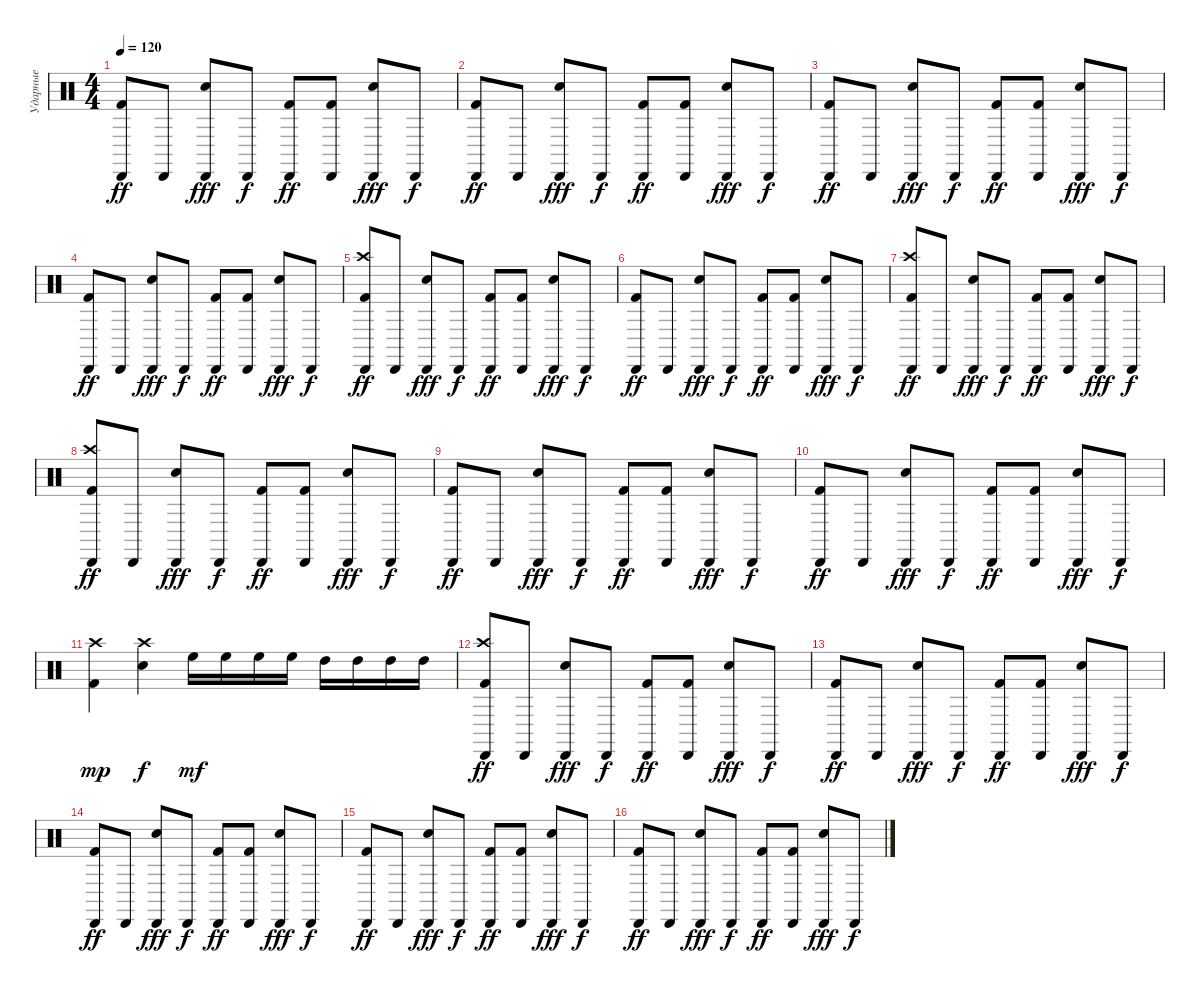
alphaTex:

\track ("Ударные" "Ударные") {instrument percussion}
\staff {score}
\articulation defaults
\ts (4 4)
\tempo 120
\clef neutral
\ks c
("Cabasa (hit)" "Kick (hit) 2").8{dy ff} "Cabasa (hit)".8 ("Snare (hit) 2" "Cabasa (hit)").8{dy fff} "Cabasa (hit)".8{dy f} ("Cabasa (hit)" "Kick (hit) 2").8{dy ff} ("Cabasa (hit)" "Kick (hit) 2").8 ("Snare (hit) 2" "Cabasa (hit)").8{dy fff} "Cabasa (hit)".8{dy f} |
("Cabasa (hit)" "Kick (hit) 2").8{dy ff} "Cabasa (hit)".8 ("Snare (hit) 2" "Cabasa (hit)").8{dy fff} "Cabasa (hit)".8{dy f} ("Cabasa (hit)" "Kick (hit) 2").8{dy ff} ("Cabasa (hit)" "Kick (hit) 2").8 ("Snare (hit) 2" "Cabasa (hit)").8{dy fff} "Cabasa (hit)".8{dy f} |
("Cabasa (hit)" "Kick (hit) 2").8{dy ff} "Cabasa (hit)".8 ("Snare (hit) 2" "Cabasa (hit)").8{dy fff} "Cabasa (hit)".8{dy f} ("Cabasa (hit)" "Kick (hit) 2").8{dy ff} ("Cabasa (hit)" "Kick (hit) 2").8 ("Snare (hit) 2" "Cabasa (hit)").8{dy fff} "Cabasa (hit)".8{dy f} |
("Cabasa (hit)" "Kick (hit) 2").8{dy ff} "Cabasa (hit)".8 ("Snare (hit) 2" "Cabasa (hit)").8{dy fff} "Cabasa (hit)".8{dy f} ("Cabasa (hit)" "Kick (hit) 2").8{dy ff} ("Cabasa (hit)" "Kick (hit) 2").8 ("Snare (hit) 2" "Cabasa (hit)").8{dy fff} "Cabasa (hit)".8{dy f} |
("Cabasa (hit)" "Kick (hit) 2" "Crash high (hit)").8{dy ff} "Cabasa (hit)".8 ("Snare (hit) 2" "Cabasa (hit)").8{dy fff} "Cabasa (hit)".8{dy f} ("Cabasa (hit)" "Kick (hit) 2").8{dy ff} ("Cabasa (hit)" "Kick (hit) 2").8 ("Snare (hit) 2" "Cabasa (hit)").8{dy fff} "Cabasa (hit)".8{dy f} |
("Cabasa (hit)" "Kick (hit) 2").8{dy ff} "Cabasa (hit)".8 ("Snare (hit) 2" "Cabasa (hit)").8{dy fff} "Cabasa (hit)".8{dy f} ("Cabasa (hit)" "Kick (hit) 2").8{dy ff} ("Cabasa (hit)" "Kick (hit) 2").8 ("Snare (hit) 2" "Cabasa (hit)").8{dy fff} "Cabasa (hit)".8{dy f} |
("Cabasa (hit)" "Kick (hit) 2" "Crash high (hit)").8{dy ff} "Cabasa (hit)".8 ("Snare (hit) 2" "Cabasa (hit)").8{dy fff} "Cabasa (hit)".8{dy f} ("Cabasa (hit)" "Kick (hit) 2").8{dy ff} ("Cabasa (hit)" "Kick (hit) 2").8 ("Snare (hit) 2" "Cabasa (hit)").8{dy fff} "Cabasa (hit)".8{dy f} |
("Cabasa (hit)" "Kick (hit) 2" "Crash high (hit)").8{dy ff} "Cabasa (hit)".8 ("Snare (hit) 2" "Cabasa (hit)").8{dy fff} "Cabasa (hit)".8{dy f} ("Cabasa (hit)" "Kick (hit) 2").8{dy ff} ("Cabasa (hit)" "Kick (hit) 2").8 ("Snare (hit) 2" "Cabasa (hit)").8{dy fff} "Cabasa (hit)".8{dy f} |
("Cabasa (hit)" "Kick (hit) 2").8{dy ff} "Cabasa (hit)".8 ("Snare (hit) 2" "Cabasa (hit)").8{dy fff} "Cabasa (hit)".8{dy f} ("Cabasa (hit)" "Kick (hit) 2").8{dy ff} ("Cabasa (hit)" "Kick (hit) 2").8 ("Snare (hit) 2" "Cabasa (hit)").8{dy fff} "Cabasa (hit)".8{dy f} |
("Cabasa (hit)" "Kick (hit) 2").8{dy ff} "Cabasa (hit)".8 ("Snare (hit) 2" "Cabasa (hit)").8{dy fff} "Cabasa (hit)".8{dy f} ("Cabasa (hit)" "Kick (hit) 2").8{dy ff} ("Cabasa (hit)" "Kick (hit) 2").8 ("Snare (hit) 2" "Cabasa (hit)").8{dy fff} "Cabasa (hit)".8{dy f} |
("Crash high (hit)" "Kick (hit) 2").4{dy mp} ("Crash high (hit)" "Snare (hit) 2").4{dy f} "High Floor Tom (hit)".16{dy mf} "High Floor Tom (hit)".16 "High Floor Tom (hit)".16 "High Floor Tom (hit)".16 "High Tom (hit)".16 "High Tom (hit)".16 "High Tom (hit)".16 "High Tom (hit)".16 |
("Cabasa (hit)" "Kick (hit) 2" "Crash high (hit)").8{dy ff} "Cabasa (hit)".8 ("Snare (hit) 2" "Cabasa (hit)").8{dy fff} "Cabasa (hit)".8{dy f} ("Cabasa (hit)" "Kick (hit) 2").8{dy ff} ("Cabasa (hit)" "Kick (hit) 2").8 ("Snare (hit) 2" "Cabasa (hit)").8{dy fff} "Cabasa (hit)".8{dy f} |
("Cabasa (hit)" "Kick (hit) 2").8{dy ff} "Cabasa (hit)".8 ("Snare (hit) 2" "Cabasa (hit)").8{dy fff} "Cabasa (hit)".8{dy f} ("Cabasa (hit)" "Kick (hit) 2").8{dy ff} ("Cabasa (hit)" "Kick (hit) 2").8 ("Snare (hit) 2" "Cabasa (hit)").8{dy fff} "Cabasa (hit)".8{dy f} |
("Cabasa (hit)" "Kick (hit) 2").8{dy ff} "Cabasa (hit)".8 ("Snare (hit) 2" "Cabasa (hit)").8{dy fff} "Cabasa (hit)".8{dy f} ("Cabasa (hit)" "Kick (hit) 2").8{dy ff} ("Cabasa (hit)" "Kick (hit) 2").8 ("Snare (hit) 2" "Cabasa (hit)").8{dy fff} "Cabasa (hit)".8{dy f} |
("Cabasa (hit)" "Kick (hit) 2").8{dy ff} "Cabasa (hit)".8 ("Snare (hit) 2" "Cabasa (hit)").8{dy fff} "Cabasa (hit)".8{dy f} ("Cabasa (hit)" "Kick (hit) 2").8{dy ff} ("Cabasa (hit)" "Kick (hit) 2").8 ("Snare (hit) 2" "Cabasa (hit)").8{dy fff} "Cabasa (hit)".8{dy f} |
("Cabasa (hit)" "Kick (hit) 2").8{dy ff} "Cabasa (hit)".8 ("Snare (hit) 2" "Cabasa (hit)").8{dy fff} "Cabasa (hit)".8{dy f} ("Cabasa (hit)" "Kick (hit) 2").8{dy ff} ("Cabasa (hit)" "Kick (hit) 2").8 ("Snare (hit) 2" "Cabasa (hit)").8{dy fff} "Cabasa (hit)".8{dy f}
